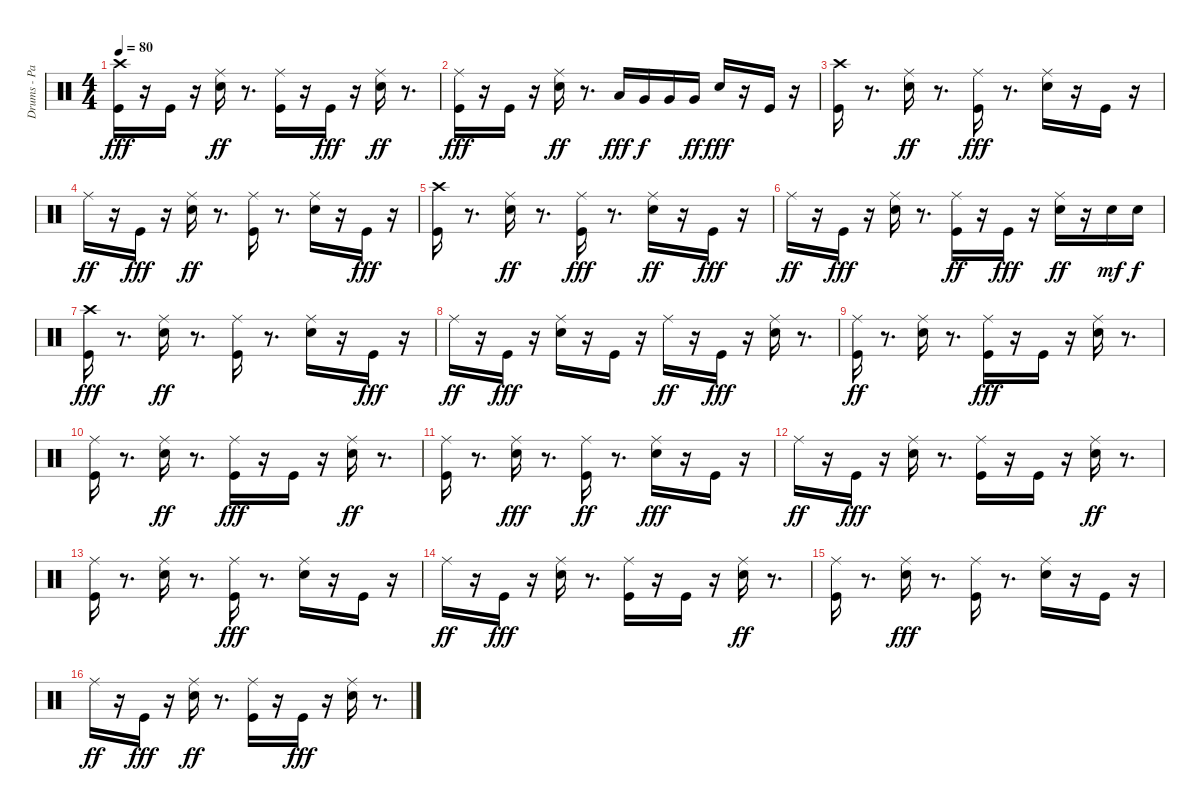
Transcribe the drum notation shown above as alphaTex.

\track ("Drums - Paice" "Drums - Pa") {instrument percussion}
\staff {score}
\articulation defaults
\ts (4 4)
\tempo 80
\clef neutral
\ks c
("Kick (hit)" "Crash high (hit)").16{dy fff} r.16 "Kick (hit)".16 r.16 ("Snare (hit) 2" "Ride (middle)").16{dy ff} r.8{d} ("Kick (hit)" "Ride (middle)").16 r.16 "Kick (hit)".16{dy fff} r.16 ("Snare (hit) 2" "Ride (middle)").16{dy ff} r.8{d} |
("Ride (middle)" "Kick (hit)").16{dy fff} r.16 "Kick (hit)".16 r.16 ("Snare (hit) 2" "Ride (middle)").16{dy ff} r.8{d} "Low Tom (hit)".16{dy fff} "Very Low Tom (hit)".16{dy f} "Very Low Tom (hit)".16 "Very Low Tom (hit)".16{dy ff} "Snare (hit) 2".16{dy fff} r.16 "Kick (hit)".16 r.16 |
("Kick (hit)" "Crash high (hit)").16 r.8{d} ("Snare (hit) 2" "Ride (middle)").16{dy ff} r.8{d} ("Ride (middle)" "Kick (hit)").16{dy fff} r.8{d} ("Ride (middle)" "Snare (hit) 2").16 r.16 "Kick (hit)".16 r.16 |
"Ride (middle)".16{dy ff} r.16 "Kick (hit)".16{dy fff} r.16 ("Snare (hit) 2" "Ride (middle)").16{dy ff} r.8{d} ("Kick (hit)" "Ride (middle)").16 r.8{d} ("Snare (hit) 2" "Ride (middle)").16 r.16 "Kick (hit)".16{dy fff} r.16 |
("Kick (hit)" "Crash high (hit)").16 r.8{d} ("Snare (hit) 2" "Ride (middle)").16{dy ff} r.8{d} ("Ride (middle)" "Kick (hit)").16{dy fff} r.8{d} ("Snare (hit) 2" "Ride (middle)").16{dy ff} r.16 "Kick (hit)".16{dy fff} r.16 |
"Ride (middle)".16{dy ff} r.16 "Kick (hit)".16{dy fff} r.16 ("Ride (middle)" "Snare (hit) 2").16 r.8{d} ("Kick (hit)" "Ride (middle)").16{dy ff} r.16 "Kick (hit)".16{dy fff} r.16 ("Snare (hit) 2" "Ride (middle)").16{dy ff} r.16 "Snare (hit) 2".16{dy mf} "Snare (hit) 2".16{dy f} |
("Kick (hit)" "Crash high (hit)").16{dy fff} r.8{d} ("Snare (hit) 2" "Ride (middle)").16{dy ff} r.8{d} ("Kick (hit)" "Ride (middle)").16 r.8{d} ("Snare (hit) 2" "Ride (middle)").16 r.16 "Kick (hit)".16{dy fff} r.16 |
"Ride (middle)".16{dy ff} r.16 "Kick (hit)".16{dy fff} r.16 ("Ride (middle)" "Snare (hit) 2").16 r.16 "Kick (hit)".16 r.16 "Ride (middle)".16{dy ff} r.16 "Kick (hit)".16{dy fff} r.16 ("Ride (middle)" "Snare (hit) 2").16 r.8{d} |
("Kick (hit)" "Ride (middle)").16{dy ff} r.8{d} ("Snare (hit) 2" "Ride (middle)").16 r.8{d} ("Ride (middle)" "Kick (hit)").16{dy fff} r.16 "Kick (hit)".16 r.16 ("Ride (middle)" "Snare (hit) 2").16 r.8{d} |
("Ride (middle)" "Kick (hit)").16 r.8{d} ("Snare (hit) 2" "Ride (middle)").16{dy ff} r.8{d} ("Ride (middle)" "Kick (hit)").16{dy fff} r.16 "Kick (hit)".16 r.16 ("Snare (hit) 2" "Ride (middle)").16{dy ff} r.8{d} |
("Kick (hit)" "Ride (middle)").16 r.8{d} ("Ride (middle)" "Snare (hit) 2").16{dy fff} r.8{d} ("Kick (hit)" "Ride (middle)").16{dy ff} r.8{d} ("Ride (middle)" "Snare (hit) 2").16{dy fff} r.16 "Kick (hit)".16 r.16 |
"Ride (middle)".16{dy ff} r.16 "Kick (hit)".16{dy fff} r.16 ("Ride (middle)" "Snare (hit) 2").16 r.8{d} ("Ride (middle)" "Kick (hit)").16 r.16 "Kick (hit)".16 r.16 ("Snare (hit) 2" "Ride (middle)").16{dy ff} r.8{d} |
("Kick (hit)" "Ride (middle)").16 r.8{d} ("Snare (hit) 2" "Ride (middle)").16 r.8{d} ("Ride (middle)" "Kick (hit)").16{dy fff} r.8{d} ("Ride (middle)" "Snare (hit) 2").16 r.16 "Kick (hit)".16 r.16 |
"Ride (middle)".16{dy ff} r.16 "Kick (hit)".16{dy fff} r.16 ("Ride (middle)" "Snare (hit) 2").16 r.8{d} ("Ride (middle)" "Kick (hit)").16 r.16 "Kick (hit)".16 r.16 ("Snare (hit) 2" "Ride (middle)").16{dy ff} r.8{d} |
("Kick (hit)" "Ride (middle)").16 r.8{d} ("Ride (middle)" "Snare (hit) 2").16{dy fff} r.8{d} ("Ride (middle)" "Kick (hit)").16 r.8{d} ("Ride (middle)" "Snare (hit) 2").16 r.16 "Kick (hit)".16 r.16 |
"Ride (middle)".16{dy ff} r.16 "Kick (hit)".16{dy fff} r.16 ("Snare (hit) 2" "Ride (middle)").16{dy ff} r.8{d} ("Kick (hit)" "Ride (middle)").16 r.16 "Kick (hit)".16{dy fff} r.16 ("Ride (middle)" "Snare (hit) 2").16 r.8{d}
